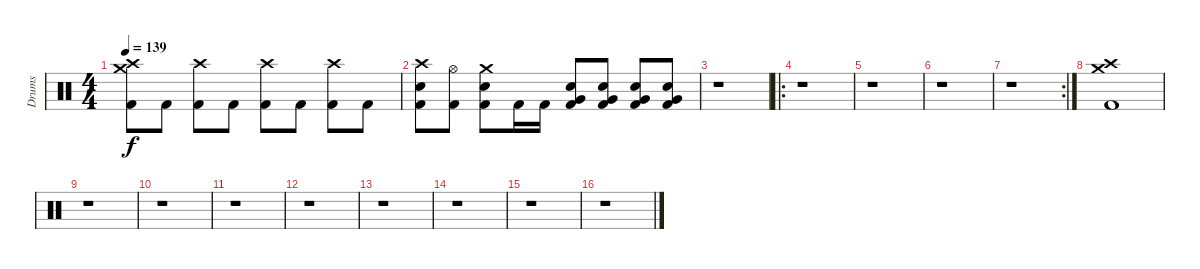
\track ("Drums" "Drums") {solo instrument percussion}
\staff {score}
\articulation defaults
\ts (4 4)
\tempo 139
\clef neutral
\ks c
("Crash high (hit)" "Crash medium (hit)" "Kick (hit) 2").8{dy f} "Kick (hit) 2".8 ("Crash high (hit)" "Kick (hit) 2").8 "Kick (hit) 2".8 ("Crash high (hit)" "Kick (hit) 2").8 "Kick (hit) 2".8 ("Crash high (hit)" "Kick (hit) 2").8 "Kick (hit) 2".8 |
("Crash high (hit)" "Electric Snare (hit)" "Kick (hit) 2").8 ("Hi-Hat (open)" "Kick (hit) 2").8 ("Crash medium (hit)" "Electric Snare (hit)" "Kick (hit) 2").8 "Kick (hit) 2".16 "Kick (hit) 2".16 ("Electric Snare (hit)" "Very Low Tom (hit)" "Kick (hit) 2").8 ("Electric Snare (hit)" "Very Low Tom (hit)" "Kick (hit) 2").8 ("Electric Snare (hit)" "Very Low Tom (hit)" "Kick (hit) 2").8 ("Electric Snare (hit)" "Very Low Tom (hit)" "Kick (hit) 2").8 |
r.1 |
\ro
r.1 |
r.1 |
r.1 |
\rc 2
r.1 |
("Crash high (hit)" "Crash medium (hit)" "Kick (hit) 2").1 |
r.1 |
r.1 |
r.1 |
r.1 |
r.1 |
r.1 |
r.1 |
r.1
